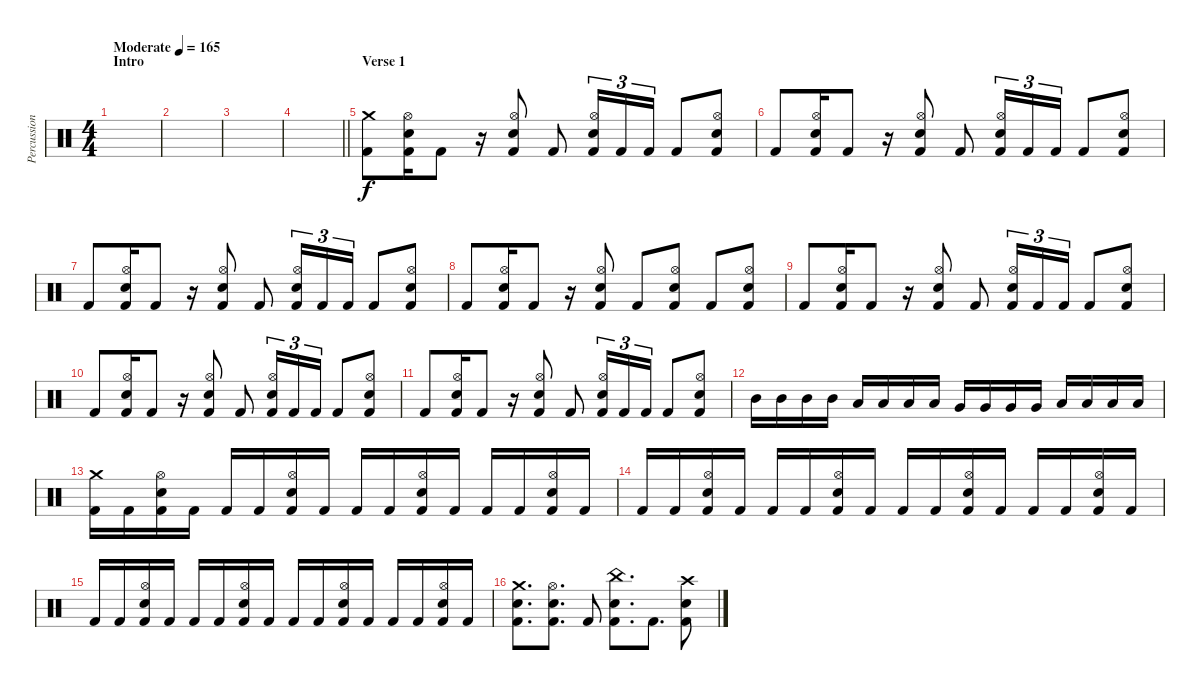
\track ("Percussion" "Percussion") {instrument percussion}
\staff {score}
\articulation defaults
\ts (4 4)
\section ("" "Intro")
\tempo (165 "Moderate")
\clef neutral
\ks c
|
|
|
\barLineRight lightlight
|
\section ("" "Verse 1")
("Crash medium (hit)" "Kick (hit) 2").8 ("Hi-Hat (open)" "Kick (hit) 2" "Snare (hit) 2").16 "Kick (hit) 2".8 r.16 ("Hi-Hat (open)" "Kick (hit) 2" "Snare (hit) 2").8 "Kick (hit) 2".8 ("Hi-Hat (open)" "Kick (hit) 2" "Snare (hit) 2").16{tu (3 2)} "Kick (hit) 2".16{tu (3 2)} "Kick (hit) 2".16{tu (3 2)} "Kick (hit) 2".8 ("Hi-Hat (open)" "Kick (hit) 2" "Snare (hit) 2").8 |
"Kick (hit) 2".8 ("Hi-Hat (open)" "Kick (hit) 2" "Snare (hit) 2").16 "Kick (hit) 2".8 r.16 ("Hi-Hat (open)" "Kick (hit) 2" "Snare (hit) 2").8 "Kick (hit) 2".8 ("Hi-Hat (open)" "Kick (hit) 2" "Snare (hit) 2").16{tu (3 2)} "Kick (hit) 2".16{tu (3 2)} "Kick (hit) 2".16{tu (3 2)} "Kick (hit) 2".8 ("Hi-Hat (open)" "Kick (hit) 2" "Snare (hit) 2").8 |
"Kick (hit) 2".8 ("Hi-Hat (open)" "Kick (hit) 2" "Snare (hit) 2").16 "Kick (hit) 2".8 r.16 ("Hi-Hat (open)" "Kick (hit) 2" "Snare (hit) 2").8 "Kick (hit) 2".8 ("Hi-Hat (open)" "Kick (hit) 2" "Snare (hit) 2").16{tu (3 2)} "Kick (hit) 2".16{tu (3 2)} "Kick (hit) 2".16{tu (3 2)} "Kick (hit) 2".8 ("Hi-Hat (open)" "Kick (hit) 2" "Snare (hit) 2").8 |
"Kick (hit) 2".8 ("Hi-Hat (open)" "Kick (hit) 2" "Snare (hit) 2").16 "Kick (hit) 2".8 r.16 ("Hi-Hat (open)" "Kick (hit) 2" "Snare (hit) 2").8 "Kick (hit) 2".8 ("Hi-Hat (open)" "Kick (hit) 2" "Snare (hit) 2").8 "Kick (hit) 2".8 ("Hi-Hat (open)" "Kick (hit) 2" "Snare (hit) 2").8 |
"Kick (hit) 2".8 ("Hi-Hat (open)" "Kick (hit) 2" "Snare (hit) 2").16 "Kick (hit) 2".8 r.16 ("Hi-Hat (open)" "Kick (hit) 2" "Snare (hit) 2").8 "Kick (hit) 2".8 ("Hi-Hat (open)" "Kick (hit) 2" "Snare (hit) 2").16{tu (3 2)} "Kick (hit) 2".16{tu (3 2)} "Kick (hit) 2".16{tu (3 2)} "Kick (hit) 2".8 ("Hi-Hat (open)" "Kick (hit) 2" "Snare (hit) 2").8 |
"Kick (hit) 2".8 ("Hi-Hat (open)" "Kick (hit) 2" "Snare (hit) 2").16 "Kick (hit) 2".8 r.16 ("Hi-Hat (open)" "Kick (hit) 2" "Snare (hit) 2").8 "Kick (hit) 2".8 ("Hi-Hat (open)" "Kick (hit) 2" "Snare (hit) 2").16{tu (3 2)} "Kick (hit) 2".16{tu (3 2)} "Kick (hit) 2".16{tu (3 2)} "Kick (hit) 2".8 ("Hi-Hat (open)" "Kick (hit) 2" "Snare (hit) 2").8 |
"Kick (hit) 2".8 ("Hi-Hat (open)" "Kick (hit) 2" "Snare (hit) 2").16 "Kick (hit) 2".8 r.16 ("Hi-Hat (open)" "Kick (hit) 2" "Snare (hit) 2").8 "Kick (hit) 2".8 ("Hi-Hat (open)" "Kick (hit) 2" "Snare (hit) 2").16{tu (3 2)} "Kick (hit) 2".16{tu (3 2)} "Kick (hit) 2".16{tu (3 2)} "Kick (hit) 2".8 ("Hi-Hat (open)" "Kick (hit) 2" "Snare (hit) 2").8 |
"Mid Tom (hit)".16 "Mid Tom (hit)".16 "Mid Tom (hit)".16 "Mid Tom (hit)".16 "Low Tom (hit)".16 "Low Tom (hit)".16 "Low Tom (hit)".16 "Low Tom (hit)".16 "Very Low Tom (hit)".16 "Very Low Tom (hit)".16 "Very Low Tom (hit)".16 "Very Low Tom (hit)".16 "Low Floor Tom (hit)".16 "Low Floor Tom (hit)".16 "Low Floor Tom (hit)".16 "Low Floor Tom (hit)".16 |
("Crash medium (hit)" "Kick (hit) 2").16 "Kick (hit) 2".16 ("Hi-Hat (open)" "Kick (hit) 2" "Snare (hit) 2").16 "Kick (hit) 2".16 "Kick (hit) 2".16 "Kick (hit) 2".16 ("Hi-Hat (open)" "Kick (hit) 2" "Snare (hit) 2").16 "Kick (hit) 2".16 "Kick (hit) 2".16 "Kick (hit) 2".16 ("Hi-Hat (open)" "Kick (hit) 2" "Snare (hit) 2").16 "Kick (hit) 2".16 "Kick (hit) 2".16 "Kick (hit) 2".16 ("Hi-Hat (open)" "Kick (hit) 2" "Snare (hit) 2").16 "Kick (hit) 2".16 |
"Kick (hit) 2".16 "Kick (hit) 2".16 ("Hi-Hat (open)" "Kick (hit) 2" "Snare (hit) 2").16 "Kick (hit) 2".16 "Kick (hit) 2".16 "Kick (hit) 2".16 ("Hi-Hat (open)" "Kick (hit) 2" "Snare (hit) 2").16 "Kick (hit) 2".16 "Kick (hit) 2".16 "Kick (hit) 2".16 ("Hi-Hat (open)" "Kick (hit) 2" "Snare (hit) 2").16 "Kick (hit) 2".16 "Kick (hit) 2".16 "Kick (hit) 2".16 ("Hi-Hat (open)" "Kick (hit) 2" "Snare (hit) 2").16 "Kick (hit) 2".16 |
"Kick (hit) 2".16 "Kick (hit) 2".16 ("Hi-Hat (open)" "Kick (hit) 2" "Snare (hit) 2").16 "Kick (hit) 2".16 "Kick (hit) 2".16 "Kick (hit) 2".16 ("Hi-Hat (open)" "Kick (hit) 2" "Snare (hit) 2").16 "Kick (hit) 2".16 "Kick (hit) 2".16 "Kick (hit) 2".16 ("Hi-Hat (open)" "Kick (hit) 2" "Snare (hit) 2").16 "Kick (hit) 2".16 "Kick (hit) 2".16 "Kick (hit) 2".16 ("Hi-Hat (open)" "Kick (hit) 2" "Snare (hit) 2").16 "Kick (hit) 2".16 |
("Crash medium (hit)" "Kick (hit) 2" "Snare (hit) 2").8{d} ("Hi-Hat (open)" "Kick (hit) 2" "Snare (hit) 2").8{d} "Kick (hit) 2".8 ("China (hit)" "Kick (hit) 2" "Snare (hit) 2").8{d} "Kick (hit) 2".8{d} ("Crash high (hit)" "Kick (hit) 2" "Snare (hit) 2").8
